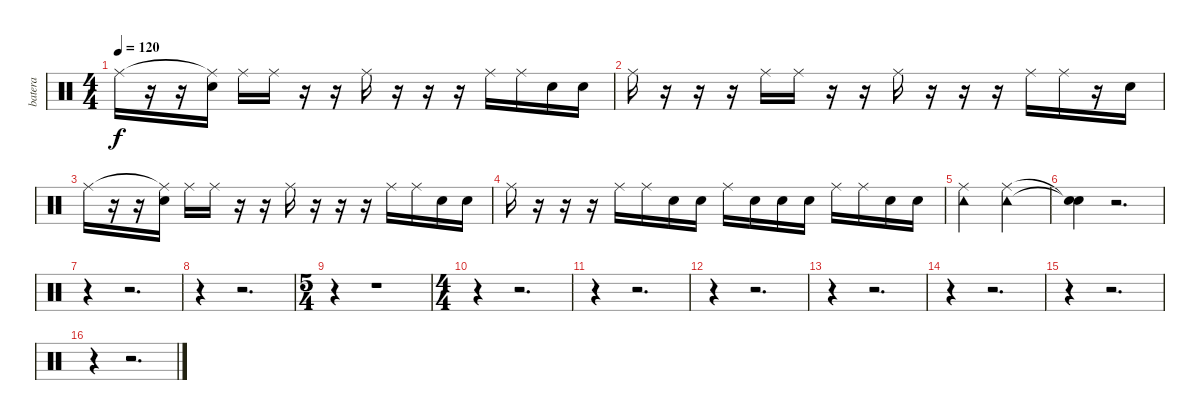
\track ("batera" "batera") {instrument percussion}
\staff {score}
\articulation defaults
\ts (4 4)
\tempo 120
\clef neutral
\ks c "Ride (middle)".16{dy f}
r.16 r.16 ("Ride (middle)"{t} "Snare (hit)").16 "Ride (middle)".16 "Ride (middle)".16 r.16 r.16 "Ride (middle)".16 r.16 r.16 r.16 "Ride (middle)".16 "Ride (middle)".16 "Snare (hit)".16 "Snare (hit)".16 |
"Ride (middle)".16 r.16 r.16 r.16 "Ride (middle)".16 "Ride (middle)".16 r.16 r.16 "Ride (middle)".16 r.16 r.16 r.16 "Ride (middle)".16 "Ride (middle)".16 r.16 "Snare (hit)".16 |
"Ride (middle)".16 r.16 r.16 ("Ride (middle)"{t} "Snare (hit)").16 "Ride (middle)".16 "Ride (middle)".16 r.16 r.16 "Ride (middle)".16 r.16 r.16 r.16 "Ride (middle)".16 "Ride (middle)".16 "Snare (hit)".16 "Snare (hit)".16 |
"Ride (middle)".16 r.16 r.16 r.16 "Ride (middle)".16 "Ride (middle)".16 "Snare (hit)".16 "Snare (hit)".16 "Ride (middle)".16 "Snare (hit)".16 "Snare (hit)".16 "Snare (hit)".16 "Ride (middle)".16 "Ride (middle)".16 "Snare (hit)".16 "Snare (hit)".16 |
("Ride (middle)" "Tambourine (hit)").2 ("Ride (middle)" "Tambourine (hit)").2 |
("Snare (hit)"{t} "Snare (hit)"{t}).4 r.2{d} |
r.4 r.2{d} |
r.4 r.2{d} |
\ts (5 4)
r.4 r.1 |
\ts (4 4)
r.4 r.2{d} |
r.4 r.2{d} |
r.4 r.2{d} |
r.4 r.2{d} |
r.4 r.2{d} |
r.4 r.2{d} |
r.4 r.2{d}
